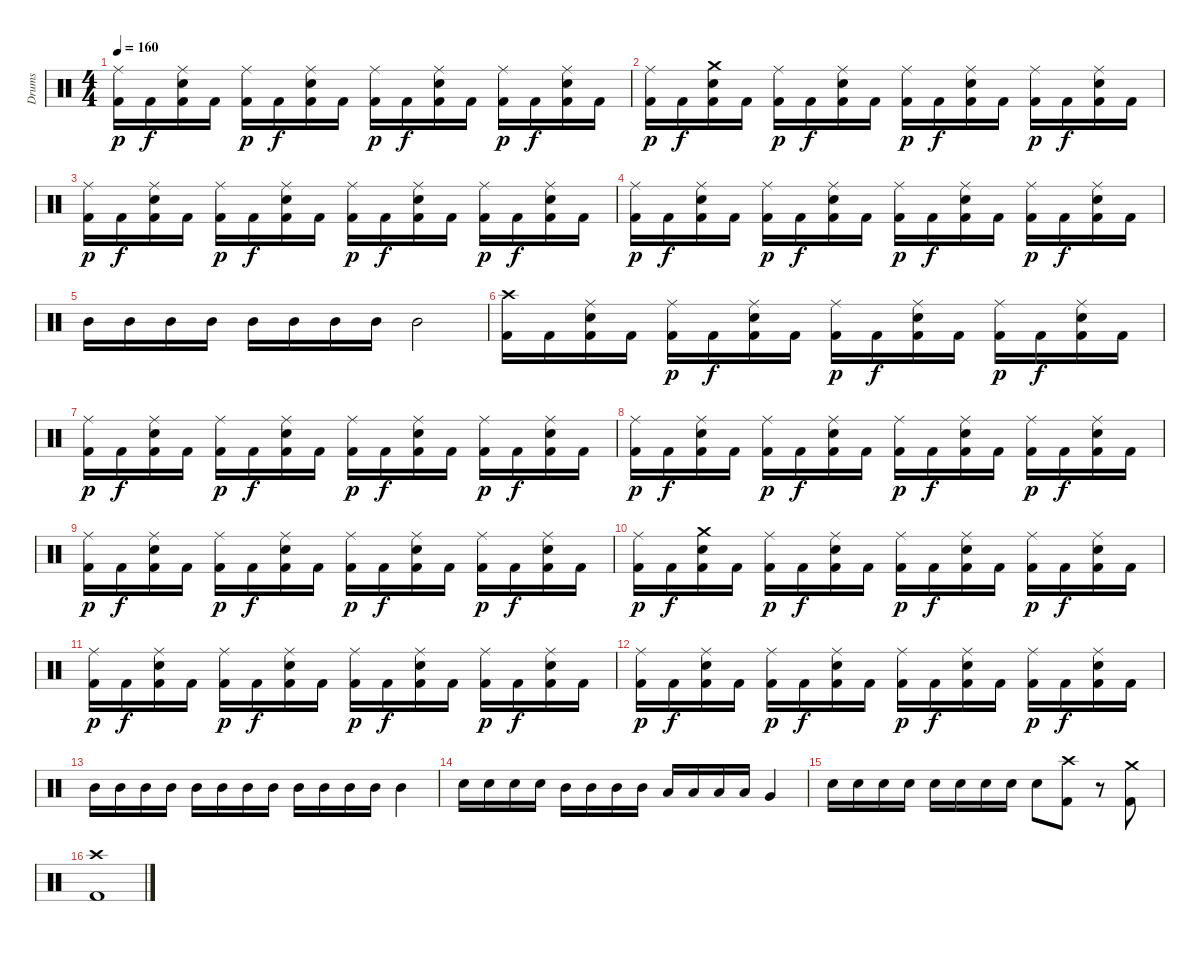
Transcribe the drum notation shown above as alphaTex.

\track ("Drums" "Drums") {instrument percussion}
\staff {score}
\articulation defaults
\ts (4 4)
\tempo 160
\clef neutral
\ks c
("Ride (middle)" "Kick (hit) 2").16{dy p} "Kick (hit) 2".16{dy f} ("Ride (middle)" "Snare (hit) 2" "Kick (hit) 2").16 "Kick (hit) 2".16 ("Ride (middle)" "Kick (hit) 2").16{dy p} "Kick (hit) 2".16{dy f} ("Ride (middle)" "Snare (hit) 2" "Kick (hit) 2").16 "Kick (hit) 2".16 ("Ride (middle)" "Kick (hit) 2").16{dy p} "Kick (hit) 2".16{dy f} ("Ride (middle)" "Snare (hit) 2" "Kick (hit) 2").16 "Kick (hit) 2".16 ("Ride (middle)" "Kick (hit) 2").16{dy p} "Kick (hit) 2".16{dy f} ("Ride (middle)" "Snare (hit) 2" "Kick (hit) 2").16 "Kick (hit) 2".16 |
("Ride (middle)" "Kick (hit) 2").16{dy p} "Kick (hit) 2".16{dy f} ("Crash medium (hit)" "Snare (hit) 2" "Kick (hit) 2").16 "Kick (hit) 2".16 ("Ride (middle)" "Kick (hit) 2").16{dy p} "Kick (hit) 2".16{dy f} ("Ride (middle)" "Snare (hit) 2" "Kick (hit) 2").16 "Kick (hit) 2".16 ("Ride (middle)" "Kick (hit) 2").16{dy p} "Kick (hit) 2".16{dy f} ("Ride (middle)" "Snare (hit) 2" "Kick (hit) 2").16 "Kick (hit) 2".16 ("Ride (middle)" "Kick (hit) 2").16{dy p} "Kick (hit) 2".16{dy f} ("Ride (middle)" "Snare (hit) 2" "Kick (hit) 2").16 "Kick (hit) 2".16 |
("Ride (middle)" "Kick (hit) 2").16{dy p} "Kick (hit) 2".16{dy f} ("Ride (middle)" "Snare (hit) 2" "Kick (hit) 2").16 "Kick (hit) 2".16 ("Ride (middle)" "Kick (hit) 2").16{dy p} "Kick (hit) 2".16{dy f} ("Ride (middle)" "Snare (hit) 2" "Kick (hit) 2").16 "Kick (hit) 2".16 ("Ride (middle)" "Kick (hit) 2").16{dy p} "Kick (hit) 2".16{dy f} ("Ride (middle)" "Snare (hit) 2" "Kick (hit) 2").16 "Kick (hit) 2".16 ("Ride (middle)" "Kick (hit) 2").16{dy p} "Kick (hit) 2".16{dy f} ("Ride (middle)" "Snare (hit) 2" "Kick (hit) 2").16 "Kick (hit) 2".16 |
("Ride (middle)" "Kick (hit) 2").16{dy p} "Kick (hit) 2".16{dy f} ("Ride (middle)" "Snare (hit) 2" "Kick (hit) 2").16 "Kick (hit) 2".16 ("Ride (middle)" "Kick (hit) 2").16{dy p} "Kick (hit) 2".16{dy f} ("Ride (middle)" "Snare (hit) 2" "Kick (hit) 2").16 "Kick (hit) 2".16 ("Ride (middle)" "Kick (hit) 2").16{dy p} "Kick (hit) 2".16{dy f} ("Ride (middle)" "Snare (hit) 2" "Kick (hit) 2").16 "Kick (hit) 2".16 ("Ride (middle)" "Kick (hit) 2").16{dy p} "Kick (hit) 2".16{dy f} ("Ride (middle)" "Snare (hit) 2" "Kick (hit) 2").16 "Kick (hit) 2".16 |
"Mid Tom (hit)".16 "Mid Tom (hit)".16 "Mid Tom (hit)".16 "Mid Tom (hit)".16 "Mid Tom (hit)".16 "Mid Tom (hit)".16 "Mid Tom (hit)".16 "Mid Tom (hit)".16 "Mid Tom (hit)".2 |
("Crash high (hit)" "Kick (hit) 2").16 "Kick (hit) 2".16 ("Ride (middle)" "Snare (hit) 2" "Kick (hit) 2").16 "Kick (hit) 2".16 ("Ride (middle)" "Kick (hit) 2").16{dy p} "Kick (hit) 2".16{dy f} ("Ride (middle)" "Snare (hit) 2" "Kick (hit) 2").16 "Kick (hit) 2".16 ("Ride (middle)" "Kick (hit) 2").16{dy p} "Kick (hit) 2".16{dy f} ("Ride (middle)" "Snare (hit) 2" "Kick (hit) 2").16 "Kick (hit) 2".16 ("Ride (middle)" "Kick (hit) 2").16{dy p} "Kick (hit) 2".16{dy f} ("Ride (middle)" "Snare (hit) 2" "Kick (hit) 2").16 "Kick (hit) 2".16 |
("Ride (middle)" "Kick (hit) 2").16{dy p} "Kick (hit) 2".16{dy f} ("Ride (middle)" "Snare (hit) 2" "Kick (hit) 2").16 "Kick (hit) 2".16 ("Ride (middle)" "Kick (hit) 2").16{dy p} "Kick (hit) 2".16{dy f} ("Ride (middle)" "Snare (hit) 2" "Kick (hit) 2").16 "Kick (hit) 2".16 ("Ride (middle)" "Kick (hit) 2").16{dy p} "Kick (hit) 2".16{dy f} ("Ride (middle)" "Snare (hit) 2" "Kick (hit) 2").16 "Kick (hit) 2".16 ("Ride (middle)" "Kick (hit) 2").16{dy p} "Kick (hit) 2".16{dy f} ("Ride (middle)" "Snare (hit) 2" "Kick (hit) 2").16 "Kick (hit) 2".16 |
("Ride (middle)" "Kick (hit) 2").16{dy p} "Kick (hit) 2".16{dy f} ("Ride (middle)" "Snare (hit) 2" "Kick (hit) 2").16 "Kick (hit) 2".16 ("Ride (middle)" "Kick (hit) 2").16{dy p} "Kick (hit) 2".16{dy f} ("Ride (middle)" "Snare (hit) 2" "Kick (hit) 2").16 "Kick (hit) 2".16 ("Ride (middle)" "Kick (hit) 2").16{dy p} "Kick (hit) 2".16{dy f} ("Ride (middle)" "Snare (hit) 2" "Kick (hit) 2").16 "Kick (hit) 2".16 ("Ride (middle)" "Kick (hit) 2").16{dy p} "Kick (hit) 2".16{dy f} ("Ride (middle)" "Snare (hit) 2" "Kick (hit) 2").16 "Kick (hit) 2".16 |
("Ride (middle)" "Kick (hit) 2").16{dy p} "Kick (hit) 2".16{dy f} ("Ride (middle)" "Snare (hit) 2" "Kick (hit) 2").16 "Kick (hit) 2".16 ("Ride (middle)" "Kick (hit) 2").16{dy p} "Kick (hit) 2".16{dy f} ("Ride (middle)" "Snare (hit) 2" "Kick (hit) 2").16 "Kick (hit) 2".16 ("Ride (middle)" "Kick (hit) 2").16{dy p} "Kick (hit) 2".16{dy f} ("Ride (middle)" "Snare (hit) 2" "Kick (hit) 2").16 "Kick (hit) 2".16 ("Ride (middle)" "Kick (hit) 2").16{dy p} "Kick (hit) 2".16{dy f} ("Ride (middle)" "Snare (hit) 2" "Kick (hit) 2").16 "Kick (hit) 2".16 |
("Ride (middle)" "Kick (hit) 2").16{dy p} "Kick (hit) 2".16{dy f} ("Crash medium (hit)" "Snare (hit) 2" "Kick (hit) 2").16 "Kick (hit) 2".16 ("Ride (middle)" "Kick (hit) 2").16{dy p} "Kick (hit) 2".16{dy f} ("Ride (middle)" "Snare (hit) 2" "Kick (hit) 2").16 "Kick (hit) 2".16 ("Ride (middle)" "Kick (hit) 2").16{dy p} "Kick (hit) 2".16{dy f} ("Ride (middle)" "Snare (hit) 2" "Kick (hit) 2").16 "Kick (hit) 2".16 ("Ride (middle)" "Kick (hit) 2").16{dy p} "Kick (hit) 2".16{dy f} ("Ride (middle)" "Snare (hit) 2" "Kick (hit) 2").16 "Kick (hit) 2".16 |
("Ride (middle)" "Kick (hit) 2").16{dy p} "Kick (hit) 2".16{dy f} ("Ride (middle)" "Snare (hit) 2" "Kick (hit) 2").16 "Kick (hit) 2".16 ("Ride (middle)" "Kick (hit) 2").16{dy p} "Kick (hit) 2".16{dy f} ("Ride (middle)" "Snare (hit) 2" "Kick (hit) 2").16 "Kick (hit) 2".16 ("Ride (middle)" "Kick (hit) 2").16{dy p} "Kick (hit) 2".16{dy f} ("Ride (middle)" "Snare (hit) 2" "Kick (hit) 2").16 "Kick (hit) 2".16 ("Ride (middle)" "Kick (hit) 2").16{dy p} "Kick (hit) 2".16{dy f} ("Ride (middle)" "Snare (hit) 2" "Kick (hit) 2").16 "Kick (hit) 2".16 |
("Ride (middle)" "Kick (hit) 2").16{dy p} "Kick (hit) 2".16{dy f} ("Ride (middle)" "Snare (hit) 2" "Kick (hit) 2").16 "Kick (hit) 2".16 ("Ride (middle)" "Kick (hit) 2").16{dy p} "Kick (hit) 2".16{dy f} ("Ride (middle)" "Snare (hit) 2" "Kick (hit) 2").16 "Kick (hit) 2".16 ("Ride (middle)" "Kick (hit) 2").16{dy p} "Kick (hit) 2".16{dy f} ("Ride (middle)" "Snare (hit) 2" "Kick (hit) 2").16 "Kick (hit) 2".16 ("Ride (middle)" "Kick (hit) 2").16{dy p} "Kick (hit) 2".16{dy f} ("Ride (middle)" "Snare (hit) 2" "Kick (hit) 2").16 "Kick (hit) 2".16 |
"Mid Tom (hit)".16 "Mid Tom (hit)".16 "Mid Tom (hit)".16 "Mid Tom (hit)".16 "Mid Tom (hit)".16 "Mid Tom (hit)".16 "Mid Tom (hit)".16 "Mid Tom (hit)".16 "Mid Tom (hit)".16 "Mid Tom (hit)".16 "Mid Tom (hit)".16 "Mid Tom (hit)".16 "Mid Tom (hit)".4 |
"Snare (hit) 2".16 "Snare (hit) 2".16 "Snare (hit) 2".16 "Snare (hit) 2".16 "Mid Tom (hit)".16 "Mid Tom (hit)".16 "Mid Tom (hit)".16 "Mid Tom (hit)".16 "Low Tom (hit)".16 "Low Tom (hit)".16 "Low Tom (hit)".16 "Low Tom (hit)".16 "Very Low Tom (hit)".4 |
"Snare (hit) 2".16 "Snare (hit) 2".16 "Snare (hit) 2".16 "Snare (hit) 2".16 "Snare (hit) 2".16 "Snare (hit) 2".16 "Snare (hit) 2".16 "Snare (hit) 2".16 "Snare (hit) 2".8 ("Crash high (hit)" "Kick (hit) 2").8 r.8 ("Crash medium (hit)" "Kick (hit) 2").8 |
("Crash high (hit)" "Kick (hit) 2").1
